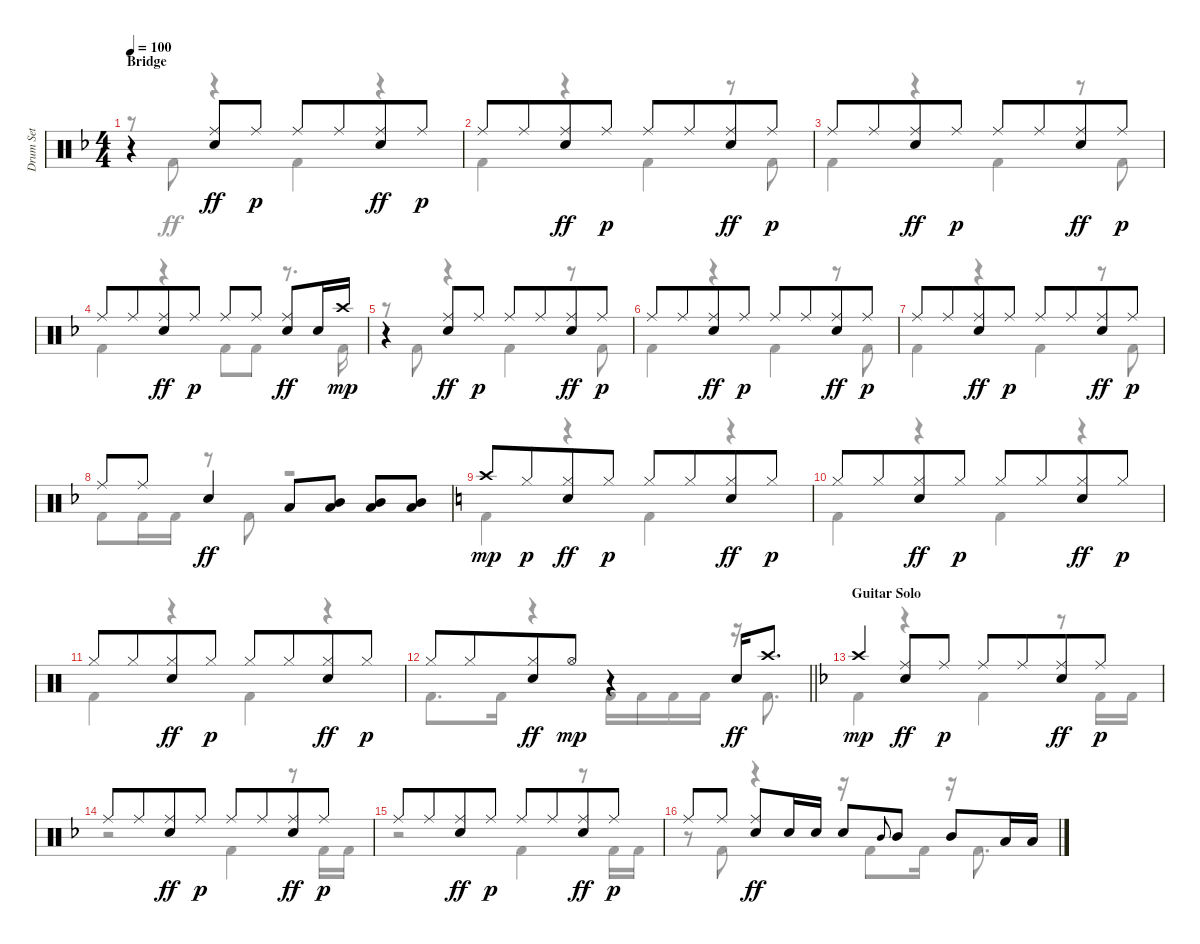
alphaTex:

\track ("Drum Set" "Drum Set") {instrument percussion}
\staff {score}
\articulation defaults
\voice
\ts (4 4)
\section ("" "Bridge")
\tempo 100
\clef neutral
\ks dminor
r.4{dy ff beam merge} ("Ride (middle)" "Electric Snare (hit)").8 "Ride (middle)".8{dy p} "Ride (middle)".8 "Ride (middle)".8{beam merge} ("Ride (middle)" "Electric Snare (hit)").8{dy ff} "Ride (middle)".8{dy p} |
"Ride (middle)".8 "Ride (middle)".8{beam merge} ("Ride (middle)" "Electric Snare (hit)").8{dy ff} "Ride (middle)".8{dy p} "Ride (middle)".8 "Ride (middle)".8{beam merge} ("Ride (middle)" "Electric Snare (hit)").8{dy ff} "Ride (middle)".8{dy p} |
"Ride (middle)".8 "Ride (middle)".8{beam merge} ("Ride (middle)" "Electric Snare (hit)").8{dy ff} "Ride (middle)".8{dy p} "Ride (middle)".8 "Ride (middle)".8{beam merge} ("Ride (middle)" "Electric Snare (hit)").8{dy ff} "Ride (middle)".8{dy p} |
"Ride (middle)".8 "Ride (middle)".8{beam merge} ("Ride (middle)" "Electric Snare (hit)").8{dy ff} "Ride (middle)".8{dy p} "Ride (middle)".8 "Ride (middle)".8{beam split} ("Ride (middle)" "Electric Snare (hit)").8{dy ff} "Electric Snare (hit)".16 "Crash high (hit)".16{dy mp} |
r.4{beam merge} ("Ride (middle)" "Electric Snare (hit)").8{dy ff} "Ride (middle)".8{dy p} "Ride (middle)".8 "Ride (middle)".8{beam merge} ("Ride (middle)" "Electric Snare (hit)").8{dy ff} "Ride (middle)".8{dy p} |
"Ride (middle)".8 "Ride (middle)".8{beam merge} ("Ride (middle)" "Electric Snare (hit)").8{dy ff} "Ride (middle)".8{dy p} "Ride (middle)".8 "Ride (middle)".8{beam merge} ("Ride (middle)" "Electric Snare (hit)").8{dy ff} "Ride (middle)".8{dy p} |
"Ride (middle)".8 "Ride (middle)".8{beam merge} ("Ride (middle)" "Electric Snare (hit)").8{dy ff} "Ride (middle)".8{dy p} "Ride (middle)".8 "Ride (middle)".8{beam merge} ("Ride (middle)" "Electric Snare (hit)").8{dy ff} "Ride (middle)".8{dy p} |
"Ride (middle)".8 "Ride (middle)".8 "Electric Snare (hit)".4{dy ff} "Low Tom (hit)".8 ("Low Tom (hit)" "Mid Tom (hit)").8 ("Low Tom (hit)" "Mid Tom (hit)").8 ("Low Tom (hit)" "Mid Tom (hit)").8 |
\ks aminor "Crash high (hit)".8{dy mp} "Hi-Hat (closed)".8{dy p beam merge}
("Hi-Hat (closed)" "Electric Snare (hit)").8{dy ff} "Hi-Hat (closed)".8{dy p} "Hi-Hat (closed)".8 "Hi-Hat (closed)".8{beam merge} ("Hi-Hat (closed)" "Electric Snare (hit)").8{dy ff} "Hi-Hat (closed)".8{dy p} |
"Hi-Hat (closed)".8 "Hi-Hat (closed)".8{beam merge} ("Hi-Hat (closed)" "Electric Snare (hit)").8{dy ff} "Hi-Hat (closed)".8{dy p} "Hi-Hat (closed)".8 "Hi-Hat (closed)".8{beam merge} ("Hi-Hat (closed)" "Electric Snare (hit)").8{dy ff} "Hi-Hat (closed)".8{dy p} |
"Hi-Hat (closed)".8 "Hi-Hat (closed)".8{beam merge} ("Hi-Hat (closed)" "Electric Snare (hit)").8{dy ff} "Hi-Hat (closed)".8{dy p} "Hi-Hat (closed)".8 "Hi-Hat (closed)".8{beam merge} ("Hi-Hat (closed)" "Electric Snare (hit)").8{dy ff} "Hi-Hat (closed)".8{dy p} |
\barLineRight lightlight "Hi-Hat (closed)".8 "Hi-Hat (closed)".8{beam merge}
("Hi-Hat (closed)" "Electric Snare (hit)").8{dy ff} "Hi-Hat (open)".8{dy mp} r.4 "Electric Snare (hit)".16{dy ff} "Crash high (hit)".8{d} |
\section ("" "Guitar Solo")
\ks dminor "Crash high (hit)".4{dy mp}
("Ride (middle)" "Electric Snare (hit)").8{dy ff} "Ride (middle)".8{dy p} "Ride (middle)".8 "Ride (middle)".8{beam merge} ("Ride (middle)" "Electric Snare (hit)").8{dy ff} "Ride (middle)".8{dy p} |
"Ride (middle)".8 "Ride (middle)".8{beam merge} ("Ride (middle)" "Electric Snare (hit)").8{dy ff} "Ride (middle)".8{dy p} "Ride (middle)".8 "Ride (middle)".8{beam merge} ("Ride (middle)" "Electric Snare (hit)").8{dy ff} "Ride (middle)".8{dy p} |
"Ride (middle)".8 "Ride (middle)".8{beam merge} ("Ride (middle)" "Electric Snare (hit)").8{dy ff} "Ride (middle)".8{dy p} "Ride (middle)".8 "Ride (middle)".8{beam merge} ("Ride (middle)" "Electric Snare (hit)").8{dy ff} "Ride (middle)".8{dy p} |
"Ride (middle)".8 "Ride (middle)".8{beam split} ("Ride (middle)" "Electric Snare (hit)").8{dy ff} "Electric Snare (hit)".16 "Electric Snare (hit)".16 "Electric Snare (hit)".8 "Mid Tom (hit)".8{gr onbeat} "Mid Tom (hit)".8 "Mid Tom (hit)".8 "Low Tom (hit)".16 "Low Tom (hit)".16
\voice
\clef neutral
\ottava regular
\simile none
\ks dminor
r.8{dy ff} "Kick (hit) 2".8 r.4 "Kick (hit) 2".4 r.4 |
"Kick (hit) 2".4 r.4 "Kick (hit) 2".4 r.8 "Kick (hit) 2".8 |
"Kick (hit) 2".4 r.4 "Kick (hit) 2".4 r.8 "Kick (hit) 2".8 |
"Kick (hit) 2".4 r.4 "Kick (hit) 2".8 "Kick (hit) 2".8 r.8{d} "Kick (hit) 2".16 |
r.8 "Kick (hit) 2".8 r.4 "Kick (hit) 2".4 r.8 "Kick (hit) 2".8 |
"Kick (hit) 2".4 r.4 "Kick (hit) 2".4 r.8 "Kick (hit) 2".8 |
"Kick (hit) 2".4 r.4 "Kick (hit) 2".4 r.8 "Kick (hit) 2".8 |
"Kick (hit) 2".8 "Kick (hit) 2".16 "Kick (hit) 2".16 r.8 "Kick (hit) 2".8 r.2 |
\ks aminor "Kick (hit) 2".4
r.4 "Kick (hit) 2".4 r.4 |
"Kick (hit) 2".4 r.4 "Kick (hit) 2".4 r.4 |
"Kick (hit) 2".4 r.4 "Kick (hit) 2".4 r.4 |
\barLineRight lightlight "Kick (hit) 2".8{d} "Kick (hit) 2".16
r.4 "Kick (hit) 2".16 "Kick (hit) 2".16 "Kick (hit) 2".16 "Kick (hit) 2".16 r.16 "Kick (hit) 2".8{d} |
\ks dminor "Kick (hit) 2".4
r.4 "Kick (hit) 2".4 r.8 "Kick (hit) 2".16 "Kick (hit) 2".16 |
r.2 "Kick (hit) 2".4 r.8 "Kick (hit) 2".16 "Kick (hit) 2".16 |
r.2 "Kick (hit) 2".4 r.8 "Kick (hit) 2".16 "Kick (hit) 2".16 |
r.8 "Kick (hit) 2".8 r.4 r.16 "Kick (hit) 2".8 "Kick (hit) 2".16 r.16 "Kick (hit) 2".8{d}
